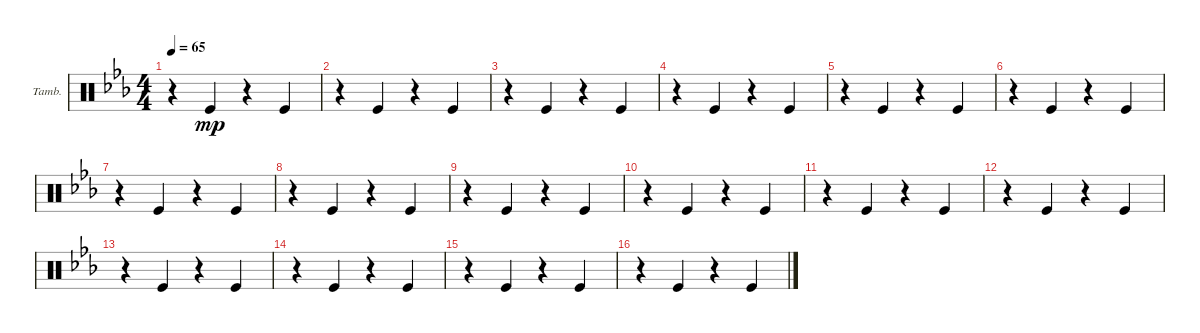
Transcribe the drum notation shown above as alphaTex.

\defaultSystemsLayout 4
\bracketExtendMode groupsimilarinstruments
\firstSystemTrackNameOrientation horizontal
\otherSystemsTrackNameOrientation horizontal
\track ("Tambourine" "Tamb.") {multiBarRest instrument percussion}
\staff {score}
\articulation defaults
\ts (4 4)
\tempo 65
\clef neutral
\scale
0.943253
\ks cminor
r.4{dy mp} "Kick (hit)".4 r.4 "Kick (hit)".4 |
\scale
1.05675 r.4 "Kick (hit)".4 r.4 "Kick (hit)".4 |
\scale
0.943253 r.4 "Kick (hit)".4 r.4 "Kick (hit)".4 |
\scale
1.05675 r.4 "Kick (hit)".4 r.4 "Kick (hit)".4 |
\scale
0.943253 r.4 "Kick (hit)".4 r.4 "Kick (hit)".4 |
\scale
1.05675 r.4 "Kick (hit)".4 r.4 "Kick (hit)".4 |
\scale
0.943253 r.4 "Kick (hit)".4 r.4 "Kick (hit)".4 |
\scale
1.05675 r.4 "Kick (hit)".4 r.4 "Kick (hit)".4 |
\scale
0.943253 r.4 "Kick (hit)".4 r.4 "Kick (hit)".4 |
\scale
1.05675 r.4 "Kick (hit)".4 r.4 "Kick (hit)".4 |
\scale
0.943253 r.4 "Kick (hit)".4 r.4 "Kick (hit)".4 |
\scale
1.05675 r.4 "Kick (hit)".4 r.4 "Kick (hit)".4 |
\scale
0.943253 r.4 "Kick (hit)".4 r.4 "Kick (hit)".4 |
\scale
1.05675 r.4 "Kick (hit)".4 r.4 "Kick (hit)".4 |
\scale
0.943253 r.4 "Kick (hit)".4 r.4 "Kick (hit)".4 |
\scale
1.05675 r.4 "Kick (hit)".4 r.4 "Kick (hit)".4
